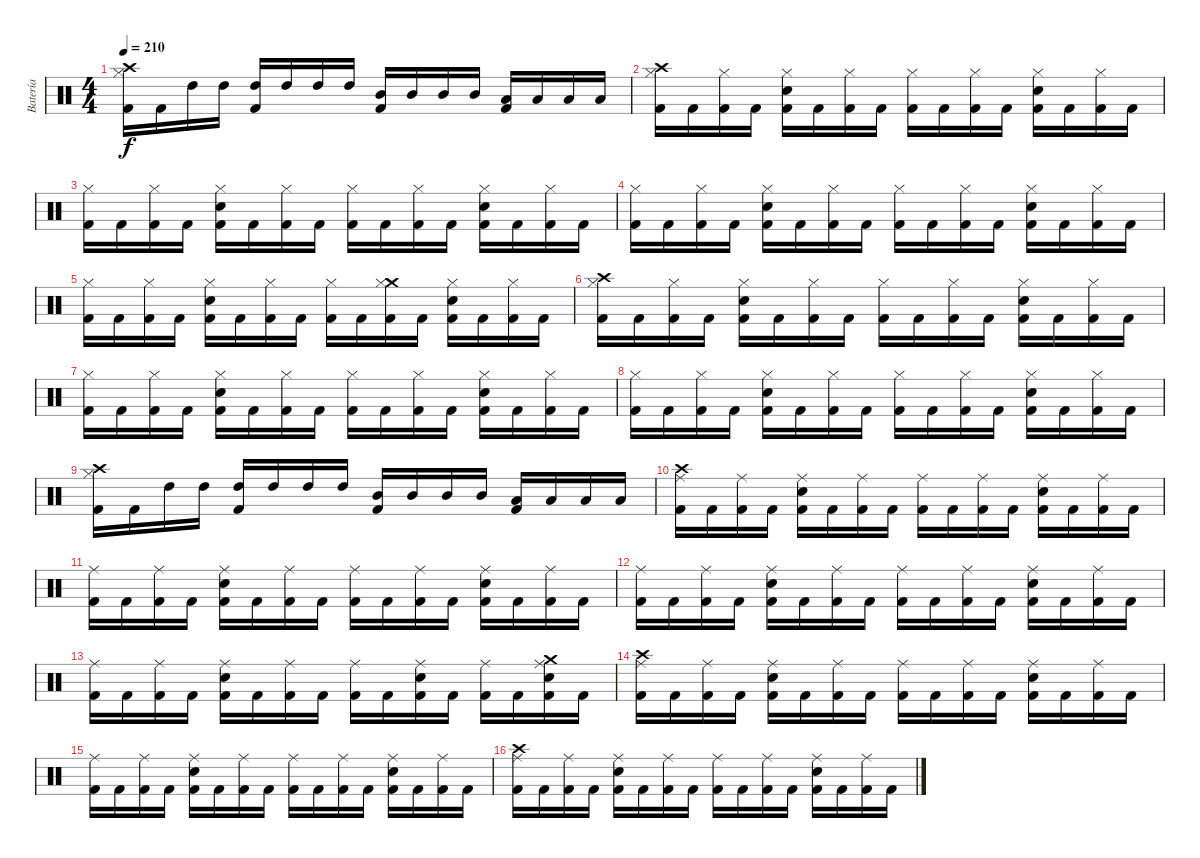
\track ("Batería" "Batería") {instrument percussion}
\staff {score}
\articulation defaults
\ts (4 4)
\tempo 210
\clef neutral
\ks c
("Crash high (hit)" "Hi-Hat (closed)" "Kick (hit) 2").16{dy f} "Kick (hit) 2".16 "High Tom (hit)".16 "High Tom (hit)".16 ("Kick (hit) 2" "High Tom (hit)").16 "High Tom (hit)".16 "High Tom (hit)".16 "High Tom (hit)".16 ("Kick (hit) 2" "Mid Tom (hit)").16 "Mid Tom (hit)".16 "Mid Tom (hit)".16 "Mid Tom (hit)".16 ("Kick (hit) 2" "Low Tom (hit)").16 "Low Tom (hit)".16 "Low Tom (hit)".16 "Low Tom (hit)".16 |
("Crash high (hit)" "Hi-Hat (closed)" "Kick (hit) 2").16 "Kick (hit) 2".16 ("Hi-Hat (closed)" "Kick (hit) 2").16 "Kick (hit) 2".16 ("Electric Snare (hit)" "Hi-Hat (closed)" "Kick (hit) 2").16 "Kick (hit) 2".16 ("Hi-Hat (closed)" "Kick (hit) 2").16 "Kick (hit) 2".16 ("Hi-Hat (closed)" "Kick (hit) 2").16 "Kick (hit) 2".16 ("Hi-Hat (closed)" "Kick (hit) 2").16 "Kick (hit) 2".16 ("Electric Snare (hit)" "Hi-Hat (closed)" "Kick (hit) 2").16 "Kick (hit) 2".16 ("Hi-Hat (closed)" "Kick (hit) 2").16 "Kick (hit) 2".16 |
("Hi-Hat (closed)" "Kick (hit) 2").16 "Kick (hit) 2".16 ("Hi-Hat (closed)" "Kick (hit) 2").16 "Kick (hit) 2".16 ("Electric Snare (hit)" "Hi-Hat (closed)" "Kick (hit) 2").16 "Kick (hit) 2".16 ("Hi-Hat (closed)" "Kick (hit) 2").16 "Kick (hit) 2".16 ("Hi-Hat (closed)" "Kick (hit) 2").16 "Kick (hit) 2".16 ("Hi-Hat (closed)" "Kick (hit) 2").16 "Kick (hit) 2".16 ("Electric Snare (hit)" "Hi-Hat (closed)" "Kick (hit) 2").16 "Kick (hit) 2".16 ("Hi-Hat (closed)" "Kick (hit) 2").16 "Kick (hit) 2".16 |
("Hi-Hat (closed)" "Kick (hit) 2").16 "Kick (hit) 2".16 ("Hi-Hat (closed)" "Kick (hit) 2").16 "Kick (hit) 2".16 ("Electric Snare (hit)" "Hi-Hat (closed)" "Kick (hit) 2").16 "Kick (hit) 2".16 ("Hi-Hat (closed)" "Kick (hit) 2").16 "Kick (hit) 2".16 ("Hi-Hat (closed)" "Kick (hit) 2").16 "Kick (hit) 2".16 ("Hi-Hat (closed)" "Kick (hit) 2").16 "Kick (hit) 2".16 ("Electric Snare (hit)" "Hi-Hat (closed)" "Kick (hit) 2").16 "Kick (hit) 2".16 ("Hi-Hat (closed)" "Kick (hit) 2").16 "Kick (hit) 2".16 |
("Hi-Hat (closed)" "Kick (hit) 2").16 "Kick (hit) 2".16 ("Hi-Hat (closed)" "Kick (hit) 2").16 "Kick (hit) 2".16 ("Electric Snare (hit)" "Hi-Hat (closed)" "Kick (hit) 2").16 "Kick (hit) 2".16 ("Hi-Hat (closed)" "Kick (hit) 2").16 "Kick (hit) 2".16 ("Hi-Hat (closed)" "Kick (hit) 2").16 "Kick (hit) 2".16 ("Crash medium (hit)" "Hi-Hat (closed)" "Kick (hit) 2").16 "Kick (hit) 2".16 ("Electric Snare (hit)" "Hi-Hat (closed)" "Kick (hit) 2").16 "Kick (hit) 2".16 ("Hi-Hat (closed)" "Kick (hit) 2").16 "Kick (hit) 2".16 |
("Crash high (hit)" "Hi-Hat (closed)" "Kick (hit) 2").16 "Kick (hit) 2".16 ("Hi-Hat (closed)" "Kick (hit) 2").16 "Kick (hit) 2".16 ("Electric Snare (hit)" "Hi-Hat (closed)" "Kick (hit) 2").16 "Kick (hit) 2".16 ("Hi-Hat (closed)" "Kick (hit) 2").16 "Kick (hit) 2".16 ("Hi-Hat (closed)" "Kick (hit) 2").16 "Kick (hit) 2".16 ("Hi-Hat (closed)" "Kick (hit) 2").16 "Kick (hit) 2".16 ("Electric Snare (hit)" "Hi-Hat (closed)" "Kick (hit) 2").16 "Kick (hit) 2".16 ("Hi-Hat (closed)" "Kick (hit) 2").16 "Kick (hit) 2".16 |
("Hi-Hat (closed)" "Kick (hit) 2").16 "Kick (hit) 2".16 ("Hi-Hat (closed)" "Kick (hit) 2").16 "Kick (hit) 2".16 ("Electric Snare (hit)" "Hi-Hat (closed)" "Kick (hit) 2").16 "Kick (hit) 2".16 ("Hi-Hat (closed)" "Kick (hit) 2").16 "Kick (hit) 2".16 ("Hi-Hat (closed)" "Kick (hit) 2").16 "Kick (hit) 2".16 ("Hi-Hat (closed)" "Kick (hit) 2").16 "Kick (hit) 2".16 ("Electric Snare (hit)" "Hi-Hat (closed)" "Kick (hit) 2").16 "Kick (hit) 2".16 ("Hi-Hat (closed)" "Kick (hit) 2").16 "Kick (hit) 2".16 |
("Hi-Hat (closed)" "Kick (hit) 2").16 "Kick (hit) 2".16 ("Hi-Hat (closed)" "Kick (hit) 2").16 "Kick (hit) 2".16 ("Electric Snare (hit)" "Hi-Hat (closed)" "Kick (hit) 2").16 "Kick (hit) 2".16 ("Hi-Hat (closed)" "Kick (hit) 2").16 "Kick (hit) 2".16 ("Hi-Hat (closed)" "Kick (hit) 2").16 "Kick (hit) 2".16 ("Hi-Hat (closed)" "Kick (hit) 2").16 "Kick (hit) 2".16 ("Electric Snare (hit)" "Hi-Hat (closed)" "Kick (hit) 2").16 "Kick (hit) 2".16 ("Hi-Hat (closed)" "Kick (hit) 2").16 "Kick (hit) 2".16 |
("Crash high (hit)" "Hi-Hat (closed)" "Kick (hit) 2").16 "Kick (hit) 2".16 "High Tom (hit)".16 "High Tom (hit)".16 ("Kick (hit) 2" "High Tom (hit)").16 "High Tom (hit)".16 "High Tom (hit)".16 "High Tom (hit)".16 ("Kick (hit) 2" "Mid Tom (hit)").16 "Mid Tom (hit)".16 "Mid Tom (hit)".16 "Mid Tom (hit)".16 ("Kick (hit) 2" "Low Tom (hit)").16 "Low Tom (hit)".16 "Low Tom (hit)".16 "Low Tom (hit)".16 |
("Crash high (hit)" "Ride (middle)" "Kick (hit) 2").16 "Kick (hit) 2".16 ("Ride (middle)" "Kick (hit) 2").16 "Kick (hit) 2".16 ("Electric Snare (hit)" "Ride (middle)" "Kick (hit) 2").16 "Kick (hit) 2".16 ("Ride (middle)" "Kick (hit) 2").16 "Kick (hit) 2".16 ("Ride (middle)" "Kick (hit) 2").16 "Kick (hit) 2".16 ("Ride (middle)" "Kick (hit) 2").16 "Kick (hit) 2".16 ("Electric Snare (hit)" "Ride (middle)" "Kick (hit) 2").16 "Kick (hit) 2".16 ("Ride (middle)" "Kick (hit) 2").16 "Kick (hit) 2".16 |
("Ride (middle)" "Kick (hit) 2").16 "Kick (hit) 2".16 ("Ride (middle)" "Kick (hit) 2").16 "Kick (hit) 2".16 ("Electric Snare (hit)" "Ride (middle)" "Kick (hit) 2").16 "Kick (hit) 2".16 ("Ride (middle)" "Kick (hit) 2").16 "Kick (hit) 2".16 ("Ride (middle)" "Kick (hit) 2").16 "Kick (hit) 2".16 ("Ride (middle)" "Kick (hit) 2").16 "Kick (hit) 2".16 ("Electric Snare (hit)" "Ride (middle)" "Kick (hit) 2").16 "Kick (hit) 2".16 ("Ride (middle)" "Kick (hit) 2").16 "Kick (hit) 2".16 |
("Ride (middle)" "Kick (hit) 2").16 "Kick (hit) 2".16 ("Ride (middle)" "Kick (hit) 2").16 "Kick (hit) 2".16 ("Electric Snare (hit)" "Ride (middle)" "Kick (hit) 2").16 "Kick (hit) 2".16 ("Ride (middle)" "Kick (hit) 2").16 "Kick (hit) 2".16 ("Ride (middle)" "Kick (hit) 2").16 "Kick (hit) 2".16 ("Ride (middle)" "Kick (hit) 2").16 "Kick (hit) 2".16 ("Electric Snare (hit)" "Ride (middle)" "Kick (hit) 2").16 "Kick (hit) 2".16 ("Ride (middle)" "Kick (hit) 2").16 "Kick (hit) 2".16 |
("Ride (middle)" "Kick (hit) 2").16 "Kick (hit) 2".16 ("Ride (middle)" "Kick (hit) 2").16 "Kick (hit) 2".16 ("Electric Snare (hit)" "Ride (middle)" "Kick (hit) 2").16 "Kick (hit) 2".16 ("Ride (middle)" "Kick (hit) 2").16 "Kick (hit) 2".16 ("Ride (middle)" "Kick (hit) 2").16 "Kick (hit) 2".16 ("Electric Snare (hit)" "Ride (middle)" "Kick (hit) 2").16 "Kick (hit) 2".16 ("Ride (middle)" "Kick (hit) 2").16 "Kick (hit) 2".16 ("Crash medium (hit)" "Electric Snare (hit)" "Ride (middle)" "Kick (hit) 2").16 "Kick (hit) 2".16 |
("Crash high (hit)" "Ride (middle)" "Kick (hit) 2").16 "Kick (hit) 2".16 ("Ride (middle)" "Kick (hit) 2").16 "Kick (hit) 2".16 ("Electric Snare (hit)" "Ride (middle)" "Kick (hit) 2").16 "Kick (hit) 2".16 ("Ride (middle)" "Kick (hit) 2").16 "Kick (hit) 2".16 ("Ride (middle)" "Kick (hit) 2").16 "Kick (hit) 2".16 ("Ride (middle)" "Kick (hit) 2").16 "Kick (hit) 2".16 ("Electric Snare (hit)" "Ride (middle)" "Kick (hit) 2").16 "Kick (hit) 2".16 ("Ride (middle)" "Kick (hit) 2").16 "Kick (hit) 2".16 |
("Ride (middle)" "Kick (hit) 2").16 "Kick (hit) 2".16 ("Ride (middle)" "Kick (hit) 2").16 "Kick (hit) 2".16 ("Electric Snare (hit)" "Ride (middle)" "Kick (hit) 2").16 "Kick (hit) 2".16 ("Ride (middle)" "Kick (hit) 2").16 "Kick (hit) 2".16 ("Ride (middle)" "Kick (hit) 2").16 "Kick (hit) 2".16 ("Ride (middle)" "Kick (hit) 2").16 "Kick (hit) 2".16 ("Electric Snare (hit)" "Ride (middle)" "Kick (hit) 2").16 "Kick (hit) 2".16 ("Ride (middle)" "Kick (hit) 2").16 "Kick (hit) 2".16 |
("Crash high (hit)" "Ride (middle)" "Kick (hit) 2").16 "Kick (hit) 2".16 ("Ride (middle)" "Kick (hit) 2").16 "Kick (hit) 2".16 ("Electric Snare (hit)" "Ride (middle)" "Kick (hit) 2").16 "Kick (hit) 2".16 ("Ride (middle)" "Kick (hit) 2").16 "Kick (hit) 2".16 ("Ride (middle)" "Kick (hit) 2").16 "Kick (hit) 2".16 ("Ride (middle)" "Kick (hit) 2").16 "Kick (hit) 2".16 ("Electric Snare (hit)" "Ride (middle)" "Kick (hit) 2").16 "Kick (hit) 2".16 ("Ride (middle)" "Kick (hit) 2").16 "Kick (hit) 2".16
